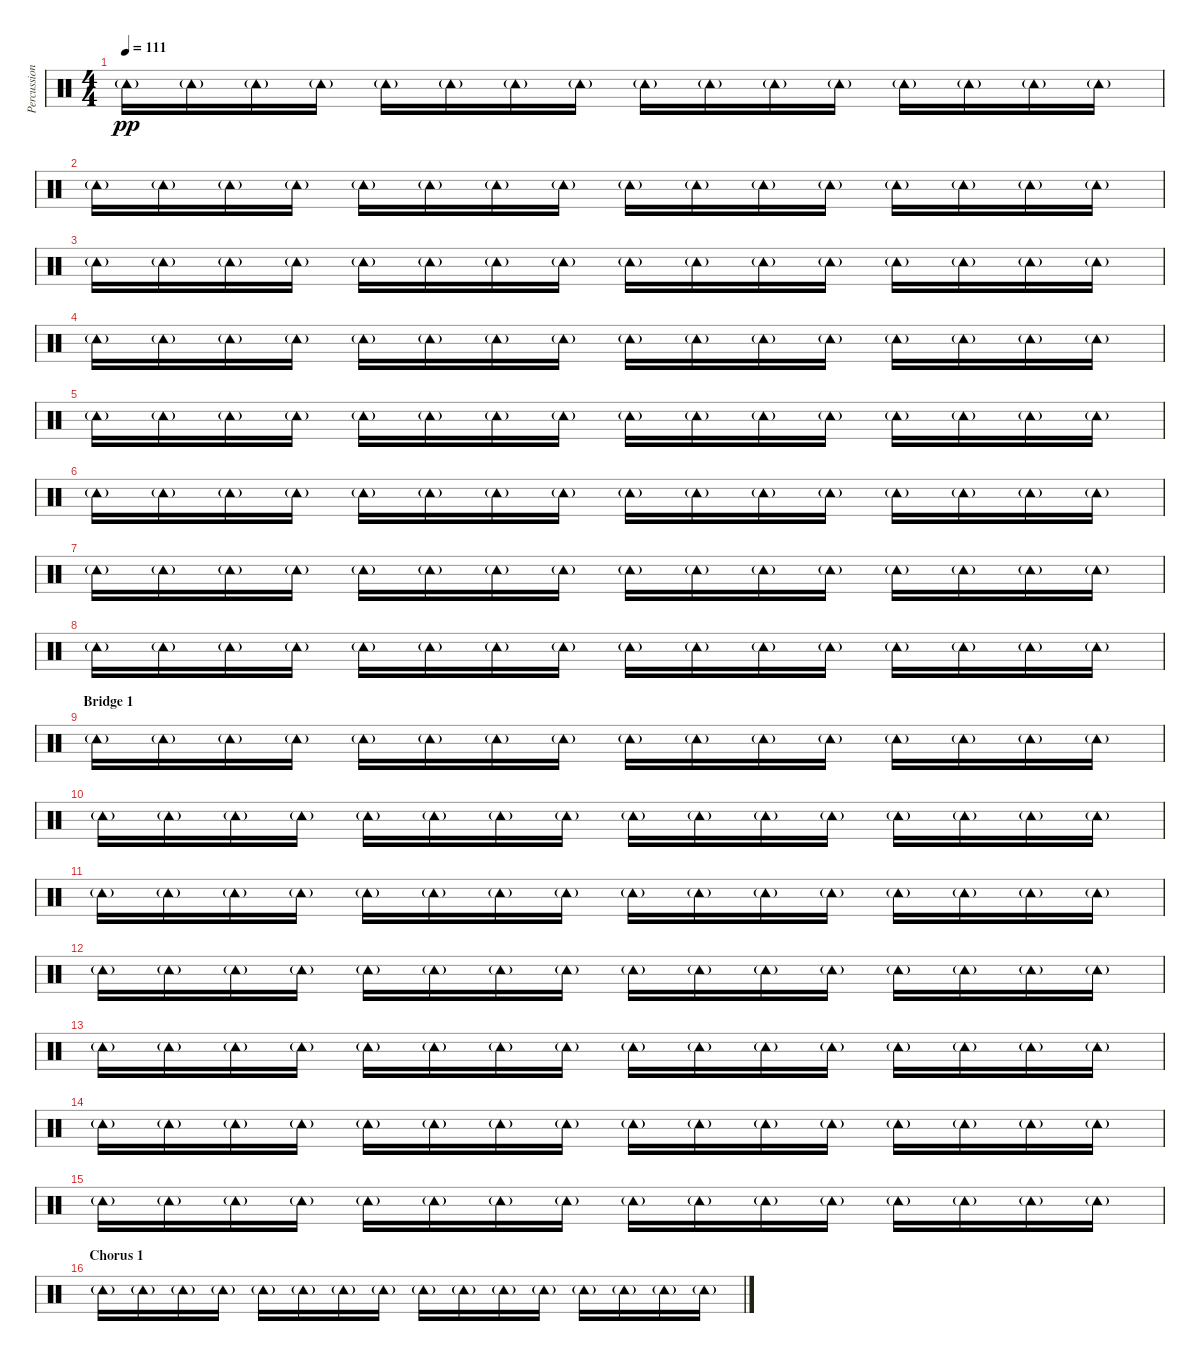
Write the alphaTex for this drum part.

\track ("Percussion" "Percussion") {instrument percussion}
\staff {score}
\articulation defaults
\ts (4 4)
\tempo 111
\clef neutral
\ks c "Tambourine (hit)"{g}.16{dy pp} "Tambourine (hit)"{g}.16 "Tambourine (hit)"{g}.16 "Tambourine (hit)"{g}.16 "Tambourine (hit)"{g}.16 "Tambourine (hit)"{g}.16 "Tambourine (hit)"{g}.16 "Tambourine (hit)"{g}.16 "Tambourine (hit)"{g}.16 "Tambourine (hit)"{g}.16 "Tambourine (hit)"{g}.16 "Tambourine (hit)"{g}.16 "Tambourine (hit)"{g}.16 "Tambourine (hit)"{g}.16 "Tambourine (hit)"{g}.16 "Tambourine (hit)"{g}.16
|
"Tambourine (hit)"{g}.16 "Tambourine (hit)"{g}.16 "Tambourine (hit)"{g}.16 "Tambourine (hit)"{g}.16 "Tambourine (hit)"{g}.16 "Tambourine (hit)"{g}.16 "Tambourine (hit)"{g}.16 "Tambourine (hit)"{g}.16 "Tambourine (hit)"{g}.16 "Tambourine (hit)"{g}.16 "Tambourine (hit)"{g}.16 "Tambourine (hit)"{g}.16 "Tambourine (hit)"{g}.16 "Tambourine (hit)"{g}.16 "Tambourine (hit)"{g}.16 "Tambourine (hit)"{g}.16 |
"Tambourine (hit)"{g}.16 "Tambourine (hit)"{g}.16 "Tambourine (hit)"{g}.16 "Tambourine (hit)"{g}.16 "Tambourine (hit)"{g}.16 "Tambourine (hit)"{g}.16 "Tambourine (hit)"{g}.16 "Tambourine (hit)"{g}.16 "Tambourine (hit)"{g}.16 "Tambourine (hit)"{g}.16 "Tambourine (hit)"{g}.16 "Tambourine (hit)"{g}.16 "Tambourine (hit)"{g}.16 "Tambourine (hit)"{g}.16 "Tambourine (hit)"{g}.16 "Tambourine (hit)"{g}.16 |
"Tambourine (hit)"{g}.16 "Tambourine (hit)"{g}.16 "Tambourine (hit)"{g}.16 "Tambourine (hit)"{g}.16 "Tambourine (hit)"{g}.16 "Tambourine (hit)"{g}.16 "Tambourine (hit)"{g}.16 "Tambourine (hit)"{g}.16 "Tambourine (hit)"{g}.16 "Tambourine (hit)"{g}.16 "Tambourine (hit)"{g}.16 "Tambourine (hit)"{g}.16 "Tambourine (hit)"{g}.16 "Tambourine (hit)"{g}.16 "Tambourine (hit)"{g}.16 "Tambourine (hit)"{g}.16 |
"Tambourine (hit)"{g}.16 "Tambourine (hit)"{g}.16 "Tambourine (hit)"{g}.16 "Tambourine (hit)"{g}.16 "Tambourine (hit)"{g}.16 "Tambourine (hit)"{g}.16 "Tambourine (hit)"{g}.16 "Tambourine (hit)"{g}.16 "Tambourine (hit)"{g}.16 "Tambourine (hit)"{g}.16 "Tambourine (hit)"{g}.16 "Tambourine (hit)"{g}.16 "Tambourine (hit)"{g}.16 "Tambourine (hit)"{g}.16 "Tambourine (hit)"{g}.16 "Tambourine (hit)"{g}.16 |
"Tambourine (hit)"{g}.16 "Tambourine (hit)"{g}.16 "Tambourine (hit)"{g}.16 "Tambourine (hit)"{g}.16 "Tambourine (hit)"{g}.16 "Tambourine (hit)"{g}.16 "Tambourine (hit)"{g}.16 "Tambourine (hit)"{g}.16 "Tambourine (hit)"{g}.16 "Tambourine (hit)"{g}.16 "Tambourine (hit)"{g}.16 "Tambourine (hit)"{g}.16 "Tambourine (hit)"{g}.16 "Tambourine (hit)"{g}.16 "Tambourine (hit)"{g}.16 "Tambourine (hit)"{g}.16 |
"Tambourine (hit)"{g}.16 "Tambourine (hit)"{g}.16 "Tambourine (hit)"{g}.16 "Tambourine (hit)"{g}.16 "Tambourine (hit)"{g}.16 "Tambourine (hit)"{g}.16 "Tambourine (hit)"{g}.16 "Tambourine (hit)"{g}.16 "Tambourine (hit)"{g}.16 "Tambourine (hit)"{g}.16 "Tambourine (hit)"{g}.16 "Tambourine (hit)"{g}.16 "Tambourine (hit)"{g}.16 "Tambourine (hit)"{g}.16 "Tambourine (hit)"{g}.16 "Tambourine (hit)"{g}.16 |
"Tambourine (hit)"{g}.16 "Tambourine (hit)"{g}.16 "Tambourine (hit)"{g}.16 "Tambourine (hit)"{g}.16 "Tambourine (hit)"{g}.16 "Tambourine (hit)"{g}.16 "Tambourine (hit)"{g}.16 "Tambourine (hit)"{g}.16 "Tambourine (hit)"{g}.16 "Tambourine (hit)"{g}.16 "Tambourine (hit)"{g}.16 "Tambourine (hit)"{g}.16 "Tambourine (hit)"{g}.16 "Tambourine (hit)"{g}.16 "Tambourine (hit)"{g}.16 "Tambourine (hit)"{g}.16 |
\section ("" "Bridge 1")
"Tambourine (hit)"{g}.16 "Tambourine (hit)"{g}.16 "Tambourine (hit)"{g}.16 "Tambourine (hit)"{g}.16 "Tambourine (hit)"{g}.16 "Tambourine (hit)"{g}.16 "Tambourine (hit)"{g}.16 "Tambourine (hit)"{g}.16 "Tambourine (hit)"{g}.16 "Tambourine (hit)"{g}.16 "Tambourine (hit)"{g}.16 "Tambourine (hit)"{g}.16 "Tambourine (hit)"{g}.16 "Tambourine (hit)"{g}.16 "Tambourine (hit)"{g}.16 "Tambourine (hit)"{g}.16 |
"Tambourine (hit)"{g}.16 "Tambourine (hit)"{g}.16 "Tambourine (hit)"{g}.16 "Tambourine (hit)"{g}.16 "Tambourine (hit)"{g}.16 "Tambourine (hit)"{g}.16 "Tambourine (hit)"{g}.16 "Tambourine (hit)"{g}.16 "Tambourine (hit)"{g}.16 "Tambourine (hit)"{g}.16 "Tambourine (hit)"{g}.16 "Tambourine (hit)"{g}.16 "Tambourine (hit)"{g}.16 "Tambourine (hit)"{g}.16 "Tambourine (hit)"{g}.16 "Tambourine (hit)"{g}.16 |
"Tambourine (hit)"{g}.16 "Tambourine (hit)"{g}.16 "Tambourine (hit)"{g}.16 "Tambourine (hit)"{g}.16 "Tambourine (hit)"{g}.16 "Tambourine (hit)"{g}.16 "Tambourine (hit)"{g}.16 "Tambourine (hit)"{g}.16 "Tambourine (hit)"{g}.16 "Tambourine (hit)"{g}.16 "Tambourine (hit)"{g}.16 "Tambourine (hit)"{g}.16 "Tambourine (hit)"{g}.16 "Tambourine (hit)"{g}.16 "Tambourine (hit)"{g}.16 "Tambourine (hit)"{g}.16 |
"Tambourine (hit)"{g}.16 "Tambourine (hit)"{g}.16 "Tambourine (hit)"{g}.16 "Tambourine (hit)"{g}.16 "Tambourine (hit)"{g}.16 "Tambourine (hit)"{g}.16 "Tambourine (hit)"{g}.16 "Tambourine (hit)"{g}.16 "Tambourine (hit)"{g}.16 "Tambourine (hit)"{g}.16 "Tambourine (hit)"{g}.16 "Tambourine (hit)"{g}.16 "Tambourine (hit)"{g}.16 "Tambourine (hit)"{g}.16 "Tambourine (hit)"{g}.16 "Tambourine (hit)"{g}.16 |
"Tambourine (hit)"{g}.16 "Tambourine (hit)"{g}.16 "Tambourine (hit)"{g}.16 "Tambourine (hit)"{g}.16 "Tambourine (hit)"{g}.16 "Tambourine (hit)"{g}.16 "Tambourine (hit)"{g}.16 "Tambourine (hit)"{g}.16 "Tambourine (hit)"{g}.16 "Tambourine (hit)"{g}.16 "Tambourine (hit)"{g}.16 "Tambourine (hit)"{g}.16 "Tambourine (hit)"{g}.16 "Tambourine (hit)"{g}.16 "Tambourine (hit)"{g}.16 "Tambourine (hit)"{g}.16 |
"Tambourine (hit)"{g}.16 "Tambourine (hit)"{g}.16 "Tambourine (hit)"{g}.16 "Tambourine (hit)"{g}.16 "Tambourine (hit)"{g}.16 "Tambourine (hit)"{g}.16 "Tambourine (hit)"{g}.16 "Tambourine (hit)"{g}.16 "Tambourine (hit)"{g}.16 "Tambourine (hit)"{g}.16 "Tambourine (hit)"{g}.16 "Tambourine (hit)"{g}.16 "Tambourine (hit)"{g}.16 "Tambourine (hit)"{g}.16 "Tambourine (hit)"{g}.16 "Tambourine (hit)"{g}.16 |
"Tambourine (hit)"{g}.16 "Tambourine (hit)"{g}.16 "Tambourine (hit)"{g}.16 "Tambourine (hit)"{g}.16 "Tambourine (hit)"{g}.16 "Tambourine (hit)"{g}.16 "Tambourine (hit)"{g}.16 "Tambourine (hit)"{g}.16 "Tambourine (hit)"{g}.16 "Tambourine (hit)"{g}.16 "Tambourine (hit)"{g}.16 "Tambourine (hit)"{g}.16 "Tambourine (hit)"{g}.16 "Tambourine (hit)"{g}.16 "Tambourine (hit)"{g}.16 "Tambourine (hit)"{g}.16 |
\section ("" "Chorus 1")
"Tambourine (hit)"{g}.16 "Tambourine (hit)"{g}.16 "Tambourine (hit)"{g}.16 "Tambourine (hit)"{g}.16 "Tambourine (hit)"{g}.16 "Tambourine (hit)"{g}.16 "Tambourine (hit)"{g}.16 "Tambourine (hit)"{g}.16 "Tambourine (hit)"{g}.16 "Tambourine (hit)"{g}.16 "Tambourine (hit)"{g}.16 "Tambourine (hit)"{g}.16 "Tambourine (hit)"{g}.16 "Tambourine (hit)"{g}.16 "Tambourine (hit)"{g}.16 "Tambourine (hit)"{g}.16
